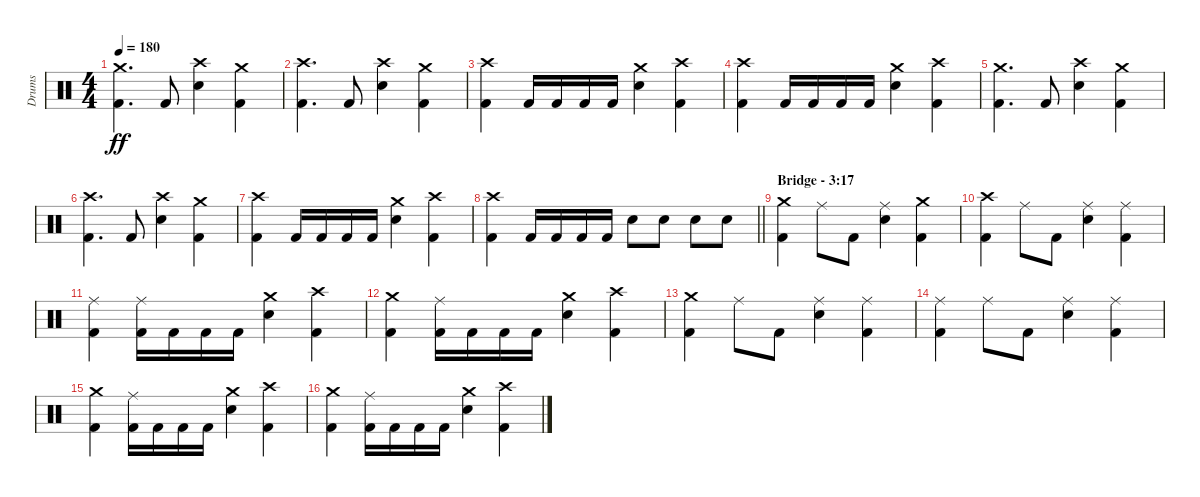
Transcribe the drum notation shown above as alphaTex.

\track ("Drums" "Drums") {instrument percussion}
\staff {score}
\articulation defaults
\ts (4 4)
\tempo 180
\clef neutral
\ks c
("Crash medium (hit)" "Kick (hit) 2").4{d dy ff} "Kick (hit) 2".8 ("Crash high (hit)" "Electric Snare (hit)").4 ("Crash medium (hit)" "Kick (hit) 2").4 |
("Crash high (hit)" "Kick (hit) 2").4{d} "Kick (hit) 2".8 ("Crash high (hit)" "Electric Snare (hit)").4 ("Crash medium (hit)" "Kick (hit) 2").4 |
("Crash high (hit)" "Kick (hit) 2").4 "Kick (hit) 2".16 "Kick (hit) 2".16 "Kick (hit) 2".16 "Kick (hit) 2".16 ("Crash medium (hit)" "Electric Snare (hit)").4 ("Crash high (hit)" "Kick (hit) 2").4 |
("Crash high (hit)" "Kick (hit) 2").4 "Kick (hit) 2".16 "Kick (hit) 2".16 "Kick (hit) 2".16 "Kick (hit) 2".16 ("Crash medium (hit)" "Electric Snare (hit)").4 ("Crash high (hit)" "Kick (hit) 2").4 |
("Crash medium (hit)" "Kick (hit) 2").4{d} "Kick (hit) 2".8 ("Crash high (hit)" "Electric Snare (hit)").4 ("Crash medium (hit)" "Kick (hit) 2").4 |
("Crash high (hit)" "Kick (hit) 2").4{d} "Kick (hit) 2".8 ("Crash high (hit)" "Electric Snare (hit)").4 ("Crash medium (hit)" "Kick (hit) 2").4 |
("Crash high (hit)" "Kick (hit) 2").4 "Kick (hit) 2".16 "Kick (hit) 2".16 "Kick (hit) 2".16 "Kick (hit) 2".16 ("Crash medium (hit)" "Electric Snare (hit)").4 ("Crash high (hit)" "Kick (hit) 2").4 |
\barLineRight lightlight
("Crash high (hit)" "Kick (hit) 2").4 "Kick (hit) 2".16 "Kick (hit) 2".16 "Kick (hit) 2".16 "Kick (hit) 2".16 "Electric Snare (hit)".8 "Electric Snare (hit)".8 "Electric Snare (hit)".8 "Electric Snare (hit)".8 |
\section ("" "Bridge - 3:17")
("Crash medium (hit)" "Kick (hit) 2").4 "Ride (middle)".8 "Kick (hit) 2".8 ("Ride (middle)" "Electric Snare (hit)").4 ("Crash medium (hit)" "Kick (hit) 2").4 |
("Crash high (hit)" "Kick (hit) 2").4 "Ride (middle)".8 "Kick (hit) 2".8 ("Ride (middle)" "Electric Snare (hit)").4 ("Ride (middle)" "Kick (hit) 2").4 |
("Ride (middle)" "Kick (hit) 2").4 ("Ride (middle)" "Kick (hit) 2").16 "Kick (hit) 2".16 "Kick (hit) 2".16 "Kick (hit) 2".16 ("Crash medium (hit)" "Electric Snare (hit)").4 ("Crash high (hit)" "Kick (hit) 2").4 |
("Crash medium (hit)" "Kick (hit) 2").4 ("Ride (middle)" "Kick (hit) 2").16 "Kick (hit) 2".16 "Kick (hit) 2".16 "Kick (hit) 2".16 ("Crash medium (hit)" "Electric Snare (hit)").4 ("Crash high (hit)" "Kick (hit) 2").4 |
("Crash medium (hit)" "Kick (hit) 2").4 "Ride (middle)".8 "Kick (hit) 2".8 ("Ride (middle)" "Electric Snare (hit)").4 ("Ride (middle)" "Kick (hit) 2").4 |
("Ride (middle)" "Kick (hit) 2").4 "Ride (middle)".8 "Kick (hit) 2".8 ("Ride (middle)" "Electric Snare (hit)").4 ("Ride (middle)" "Kick (hit) 2").4 |
("Crash medium (hit)" "Kick (hit) 2").4 ("Ride (middle)" "Kick (hit) 2").16 "Kick (hit) 2".16 "Kick (hit) 2".16 "Kick (hit) 2".16 ("Crash medium (hit)" "Electric Snare (hit)").4 ("Crash high (hit)" "Kick (hit) 2").4 |
("Crash medium (hit)" "Kick (hit) 2").4 ("Ride (middle)" "Kick (hit) 2").16 "Kick (hit) 2".16 "Kick (hit) 2".16 "Kick (hit) 2".16 ("Crash medium (hit)" "Electric Snare (hit)").4 ("Crash high (hit)" "Kick (hit) 2").4
